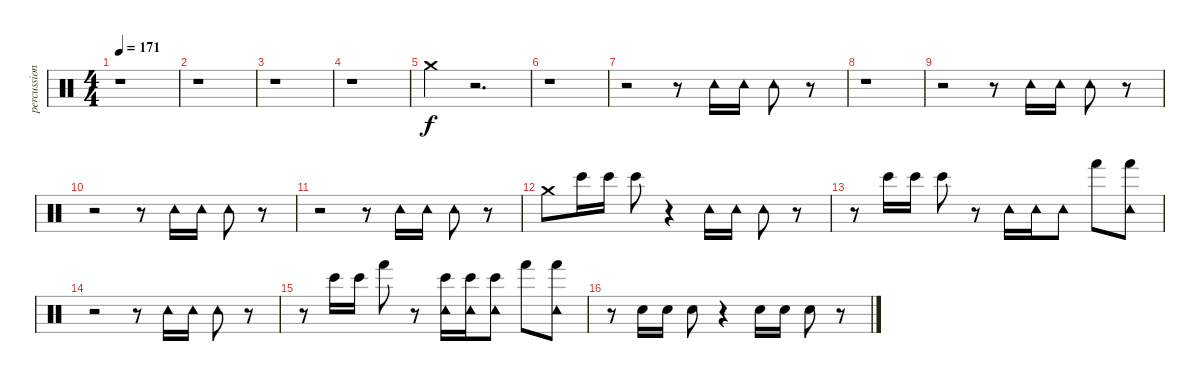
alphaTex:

\track ("percussion" "percussion") {instrument percussion}
\staff {score}
\articulation defaults
\ts (4 4)
\tempo 171
\clef neutral
\ks c
r.1{dy f} |
r.1 |
r.1 |
r.1 |
"Crash medium (hit)".4 r.2{d} |
r.1 |
r.2 r.8 "Tambourine (hit)".16 "Tambourine (hit)".16 "Tambourine (hit)".8 r.8 |
r.1 |
r.2 r.8 "Tambourine (hit)".16 "Tambourine (hit)".16 "Tambourine (hit)".8 r.8 |
r.2 r.8 "Tambourine (hit)".16 "Tambourine (hit)".16 "Tambourine (hit)".8 r.8 |
r.2 r.8 "Tambourine (hit)".16 "Tambourine (hit)".16 "Tambourine (hit)".8 r.8 |
"Crash medium (hit)".8 "Bongo High (hit)".16 "Bongo High (hit)".16 "Bongo High (hit)".8 r.4 "Tambourine (hit)".16 "Tambourine (hit)".16 "Tambourine (hit)".8 r.8 |
r.8 "Bongo High (hit)".16 "Bongo High (hit)".16 "Bongo High (hit)".8 r.8 "Tambourine (hit)".16 "Tambourine (hit)".16 "Tambourine (hit)".8 "Hand (hit)".8 ("Tambourine (hit)" "Hand (hit)").8 |
r.2 r.8 "Tambourine (hit)".16 "Tambourine (hit)".16 "Tambourine (hit)".8 r.8 |
r.8 "Bongo High (hit)".16 "Bongo High (hit)".16 "Hand (hit)".8 r.8 ("Bongo High (hit)" "Tambourine (hit)").16 ("Bongo High (hit)" "Tambourine (hit)").16 ("Bongo High (hit)" "Tambourine (hit)").8 "Hand (hit)".8 ("Hand (hit)" "Tambourine (hit)").8 |
r.8 "Electric Snare (hit)".16 "Electric Snare (hit)".16 "Electric Snare (hit)".8 r.4 "Electric Snare (hit)".16 "Electric Snare (hit)".16 "Electric Snare (hit)".8 r.8
